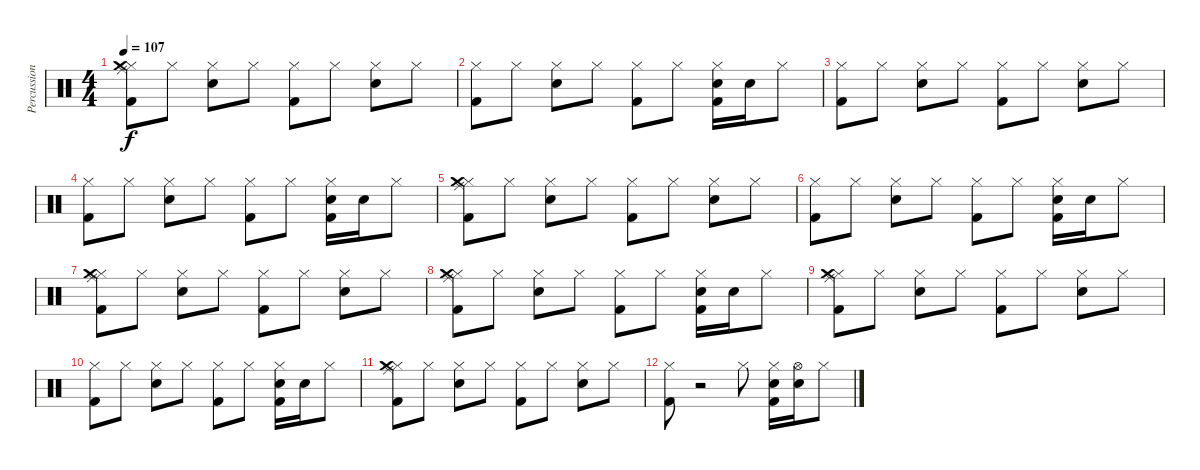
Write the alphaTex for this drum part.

\track ("Percussion" "Percussion") {instrument percussion}
\staff {score}
\articulation defaults
\ts (4 4)
\tempo 107
\clef neutral
\ks c
("Hi-Hat (closed)" "Ride (middle)" "Crash medium (hit)" "Kick (hit) 2").8{dy f} "Hi-Hat (closed)".8 ("Hi-Hat (closed)" "Snare (hit) 2").8 "Hi-Hat (closed)".8 ("Hi-Hat (closed)" "Kick (hit) 2").8 "Hi-Hat (closed)".8 ("Hi-Hat (closed)" "Snare (hit) 2").8 "Hi-Hat (closed)".8 |
("Hi-Hat (closed)" "Kick (hit) 2").8 "Hi-Hat (closed)".8 ("Hi-Hat (closed)" "Snare (hit) 2").8 "Hi-Hat (closed)".8 ("Hi-Hat (closed)" "Kick (hit) 2").8 "Hi-Hat (closed)".8 ("Hi-Hat (closed)" "Kick (hit) 2" "Snare (hit) 2").16 "Snare (hit) 2".16 "Hi-Hat (closed)".8 |
("Hi-Hat (closed)" "Kick (hit) 2").8 "Hi-Hat (closed)".8 ("Hi-Hat (closed)" "Snare (hit) 2").8 "Hi-Hat (closed)".8 ("Hi-Hat (closed)" "Kick (hit) 2").8 "Hi-Hat (closed)".8 ("Hi-Hat (closed)" "Snare (hit) 2").8 "Hi-Hat (closed)".8 |
("Hi-Hat (closed)" "Kick (hit) 2").8 "Hi-Hat (closed)".8 ("Hi-Hat (closed)" "Snare (hit) 2").8 "Hi-Hat (closed)".8 ("Hi-Hat (closed)" "Kick (hit) 2").8 "Hi-Hat (closed)".8 ("Hi-Hat (closed)" "Kick (hit) 2" "Snare (hit) 2").16 "Snare (hit) 2".16 "Hi-Hat (closed)".8 |
("Hi-Hat (closed)" "Ride (middle)" "Crash medium (hit)" "Kick (hit) 2").8 "Hi-Hat (closed)".8 ("Hi-Hat (closed)" "Snare (hit) 2").8 "Hi-Hat (closed)".8 ("Hi-Hat (closed)" "Kick (hit) 2").8 "Hi-Hat (closed)".8 ("Hi-Hat (closed)" "Snare (hit) 2").8 "Hi-Hat (closed)".8 |
("Hi-Hat (closed)" "Kick (hit) 2").8 "Hi-Hat (closed)".8 ("Hi-Hat (closed)" "Snare (hit) 2").8 "Hi-Hat (closed)".8 ("Hi-Hat (closed)" "Kick (hit) 2").8 "Hi-Hat (closed)".8 ("Hi-Hat (closed)" "Kick (hit) 2" "Snare (hit) 2").16 "Snare (hit) 2".16 "Hi-Hat (closed)".8 |
("Hi-Hat (closed)" "Ride (middle)" "Crash medium (hit)" "Kick (hit) 2").8 "Hi-Hat (closed)".8 ("Hi-Hat (closed)" "Snare (hit) 2").8 "Hi-Hat (closed)".8 ("Hi-Hat (closed)" "Kick (hit) 2").8 "Hi-Hat (closed)".8 ("Hi-Hat (closed)" "Snare (hit) 2").8 "Hi-Hat (closed)".8 |
("Hi-Hat (closed)" "Ride (middle)" "Crash medium (hit)" "Kick (hit) 2").8 "Hi-Hat (closed)".8 ("Hi-Hat (closed)" "Snare (hit) 2").8 "Hi-Hat (closed)".8 ("Hi-Hat (closed)" "Kick (hit) 2").8 "Hi-Hat (closed)".8 ("Hi-Hat (closed)" "Kick (hit) 2" "Snare (hit) 2").16 "Snare (hit) 2".16 "Hi-Hat (closed)".8 |
("Hi-Hat (closed)" "Ride (middle)" "Crash medium (hit)" "Kick (hit) 2").8 "Hi-Hat (closed)".8 ("Hi-Hat (closed)" "Snare (hit) 2").8 "Hi-Hat (closed)".8 ("Hi-Hat (closed)" "Kick (hit) 2").8 "Hi-Hat (closed)".8 ("Hi-Hat (closed)" "Snare (hit) 2").8 "Hi-Hat (closed)".8 |
("Hi-Hat (closed)" "Kick (hit) 2").8 "Hi-Hat (closed)".8 ("Hi-Hat (closed)" "Snare (hit) 2").8 "Hi-Hat (closed)".8 ("Hi-Hat (closed)" "Kick (hit) 2").8 "Hi-Hat (closed)".8 ("Hi-Hat (closed)" "Kick (hit) 2" "Snare (hit) 2").16 "Snare (hit) 2".16 "Hi-Hat (closed)".8 |
("Hi-Hat (closed)" "Ride (middle)" "Crash medium (hit)" "Kick (hit) 2").8 "Hi-Hat (closed)".8 ("Hi-Hat (closed)" "Snare (hit) 2").8 "Hi-Hat (closed)".8 ("Hi-Hat (closed)" "Kick (hit) 2").8 "Hi-Hat (closed)".8 ("Hi-Hat (closed)" "Snare (hit) 2").8 "Hi-Hat (closed)".8 |
("Hi-Hat (closed)" "Kick (hit) 2").8 r.2 "Hi-Hat (closed)".8 ("Hi-Hat (closed)" "Kick (hit) 2" "Snare (hit) 2").16 ("Hi-Hat (open)" "Snare (hit) 2").16 "Hi-Hat (closed)".8
